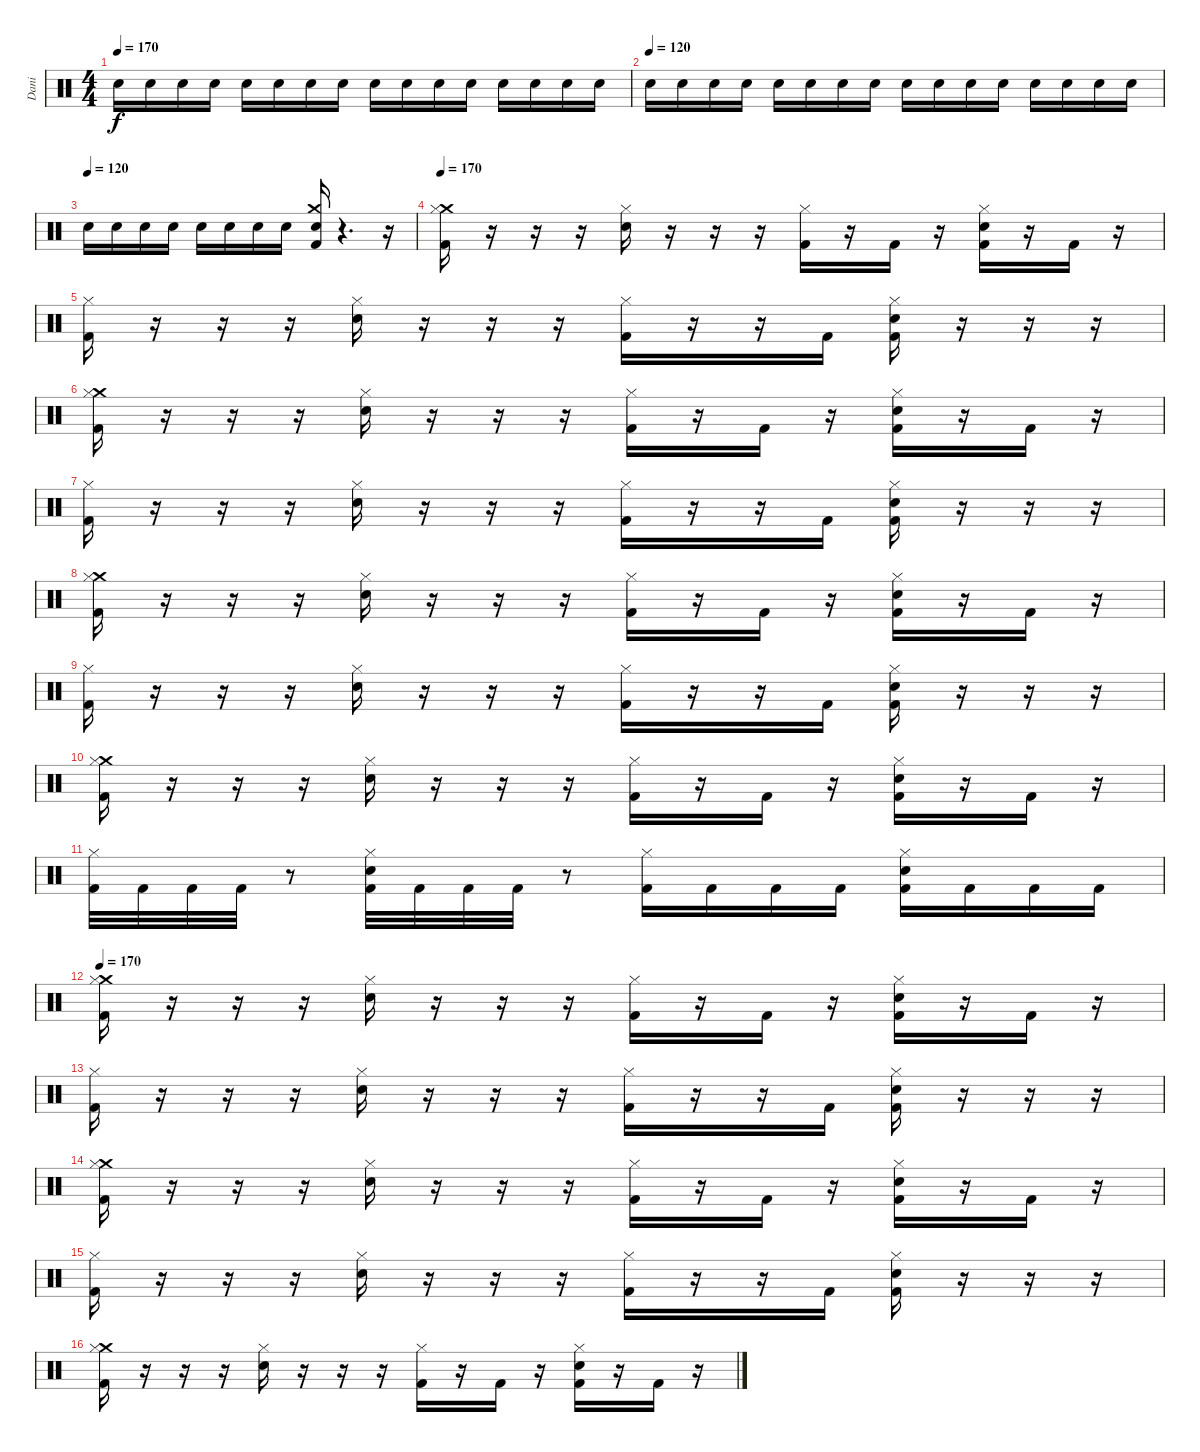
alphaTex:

\track ("Dani" "Dani") {instrument percussion}
\staff {score}
\articulation defaults
\ts (4 4)
\tempo 170
\tempo 120
\tempo 170
\clef neutral
\ks c "Electric Snare (hit)".16{dy f} "Electric Snare (hit)".16 "Electric Snare (hit)".16 "Electric Snare (hit)".16 "Electric Snare (hit)".16 "Electric Snare (hit)".16 "Electric Snare (hit)".16 "Electric Snare (hit)".16 "Electric Snare (hit)".16 "Electric Snare (hit)".16 "Electric Snare (hit)".16 "Electric Snare (hit)".16 "Electric Snare (hit)".16 "Electric Snare (hit)".16 "Electric Snare (hit)".16 "Electric Snare (hit)".16
|
\tempo (120)
"Electric Snare (hit)".16 "Electric Snare (hit)".16 "Electric Snare (hit)".16 "Electric Snare (hit)".16 "Electric Snare (hit)".16 "Electric Snare (hit)".16 "Electric Snare (hit)".16 "Electric Snare (hit)".16 "Electric Snare (hit)".16 "Electric Snare (hit)".16 "Electric Snare (hit)".16 "Electric Snare (hit)".16 "Electric Snare (hit)".16 "Electric Snare (hit)".16 "Electric Snare (hit)".16 "Electric Snare (hit)".16 |
\tempo (120)
"Electric Snare (hit)".16 "Electric Snare (hit)".16 "Electric Snare (hit)".16 "Electric Snare (hit)".16 "Electric Snare (hit)".16 "Electric Snare (hit)".16 "Electric Snare (hit)".16 "Electric Snare (hit)".16 ("Crash medium (hit)" "Electric Snare (hit)" "Kick (hit) 2").16 r.4{d} r.16 |
\tempo 170
("Crash medium (hit)" "Hi-Hat (closed)" "Kick (hit) 2").16 r.16 r.16 r.16 ("Hi-Hat (closed)" "Electric Snare (hit)").16 r.16 r.16 r.16 ("Hi-Hat (closed)" "Kick (hit) 2").16 r.16 "Kick (hit) 2".16 r.16 ("Hi-Hat (closed)" "Electric Snare (hit)" "Kick (hit) 2").16 r.16 "Kick (hit) 2".16 r.16 |
("Hi-Hat (closed)" "Kick (hit) 2").16 r.16 r.16 r.16 ("Hi-Hat (closed)" "Electric Snare (hit)").16 r.16 r.16 r.16 ("Hi-Hat (closed)" "Kick (hit) 2").16 r.16 r.16 "Kick (hit) 2".16 ("Hi-Hat (closed)" "Electric Snare (hit)" "Kick (hit) 2").16 r.16 r.16 r.16 |
("Crash medium (hit)" "Hi-Hat (closed)" "Kick (hit) 2").16 r.16 r.16 r.16 ("Hi-Hat (closed)" "Electric Snare (hit)").16 r.16 r.16 r.16 ("Hi-Hat (closed)" "Kick (hit) 2").16 r.16 "Kick (hit) 2".16 r.16 ("Hi-Hat (closed)" "Electric Snare (hit)" "Kick (hit) 2").16 r.16 "Kick (hit) 2".16 r.16 |
("Hi-Hat (closed)" "Kick (hit) 2").16 r.16 r.16 r.16 ("Hi-Hat (closed)" "Electric Snare (hit)").16 r.16 r.16 r.16 ("Hi-Hat (closed)" "Kick (hit) 2").16 r.16 r.16 "Kick (hit) 2".16 ("Hi-Hat (closed)" "Electric Snare (hit)" "Kick (hit) 2").16 r.16 r.16 r.16 |
("Crash medium (hit)" "Hi-Hat (closed)" "Kick (hit) 2").16 r.16 r.16 r.16 ("Hi-Hat (closed)" "Electric Snare (hit)").16 r.16 r.16 r.16 ("Hi-Hat (closed)" "Kick (hit) 2").16 r.16 "Kick (hit) 2".16 r.16 ("Hi-Hat (closed)" "Electric Snare (hit)" "Kick (hit) 2").16 r.16 "Kick (hit) 2".16 r.16 |
("Hi-Hat (closed)" "Kick (hit) 2").16 r.16 r.16 r.16 ("Hi-Hat (closed)" "Electric Snare (hit)").16 r.16 r.16 r.16 ("Hi-Hat (closed)" "Kick (hit) 2").16 r.16 r.16 "Kick (hit) 2".16 ("Hi-Hat (closed)" "Electric Snare (hit)" "Kick (hit) 2").16 r.16 r.16 r.16 |
("Crash medium (hit)" "Hi-Hat (closed)" "Kick (hit) 2").16 r.16 r.16 r.16 ("Hi-Hat (closed)" "Electric Snare (hit)").16 r.16 r.16 r.16 ("Hi-Hat (closed)" "Kick (hit) 2").16 r.16 "Kick (hit) 2".16 r.16 ("Hi-Hat (closed)" "Electric Snare (hit)" "Kick (hit) 2").16 r.16 "Kick (hit) 2".16 r.16 |
("Hi-Hat (closed)" "Kick (hit) 2").32 "Kick (hit) 2".32 "Kick (hit) 2".32 "Kick (hit) 2".32 r.8 ("Hi-Hat (closed)" "Electric Snare (hit)" "Kick (hit) 2").32 "Kick (hit) 2".32 "Kick (hit) 2".32 "Kick (hit) 2".32 r.8 ("Hi-Hat (closed)" "Kick (hit) 2").16 "Kick (hit) 2".16 "Kick (hit) 2".16 "Kick (hit) 2".16 ("Hi-Hat (closed)" "Electric Snare (hit)" "Kick (hit) 2").16 "Kick (hit) 2".16 "Kick (hit) 2".16 "Kick (hit) 2".16 |
\tempo 170
("Crash medium (hit)" "Hi-Hat (closed)" "Kick (hit) 2").16 r.16 r.16 r.16 ("Hi-Hat (closed)" "Electric Snare (hit)").16 r.16 r.16 r.16 ("Hi-Hat (closed)" "Kick (hit) 2").16 r.16 "Kick (hit) 2".16 r.16 ("Hi-Hat (closed)" "Electric Snare (hit)" "Kick (hit) 2").16 r.16 "Kick (hit) 2".16 r.16 |
("Hi-Hat (closed)" "Kick (hit) 2").16 r.16 r.16 r.16 ("Hi-Hat (closed)" "Electric Snare (hit)").16 r.16 r.16 r.16 ("Hi-Hat (closed)" "Kick (hit) 2").16 r.16 r.16 "Kick (hit) 2".16 ("Hi-Hat (closed)" "Electric Snare (hit)" "Kick (hit) 2").16 r.16 r.16 r.16 |
("Crash medium (hit)" "Hi-Hat (closed)" "Kick (hit) 2").16 r.16 r.16 r.16 ("Hi-Hat (closed)" "Electric Snare (hit)").16 r.16 r.16 r.16 ("Hi-Hat (closed)" "Kick (hit) 2").16 r.16 "Kick (hit) 2".16 r.16 ("Hi-Hat (closed)" "Electric Snare (hit)" "Kick (hit) 2").16 r.16 "Kick (hit) 2".16 r.16 |
("Hi-Hat (closed)" "Kick (hit) 2").16 r.16 r.16 r.16 ("Hi-Hat (closed)" "Electric Snare (hit)").16 r.16 r.16 r.16 ("Hi-Hat (closed)" "Kick (hit) 2").16 r.16 r.16 "Kick (hit) 2".16 ("Hi-Hat (closed)" "Electric Snare (hit)" "Kick (hit) 2").16 r.16 r.16 r.16 |
("Crash medium (hit)" "Hi-Hat (closed)" "Kick (hit) 2").16 r.16 r.16 r.16 ("Hi-Hat (closed)" "Electric Snare (hit)").16 r.16 r.16 r.16 ("Hi-Hat (closed)" "Kick (hit) 2").16 r.16 "Kick (hit) 2".16 r.16 ("Hi-Hat (closed)" "Electric Snare (hit)" "Kick (hit) 2").16 r.16 "Kick (hit) 2".16 r.16
